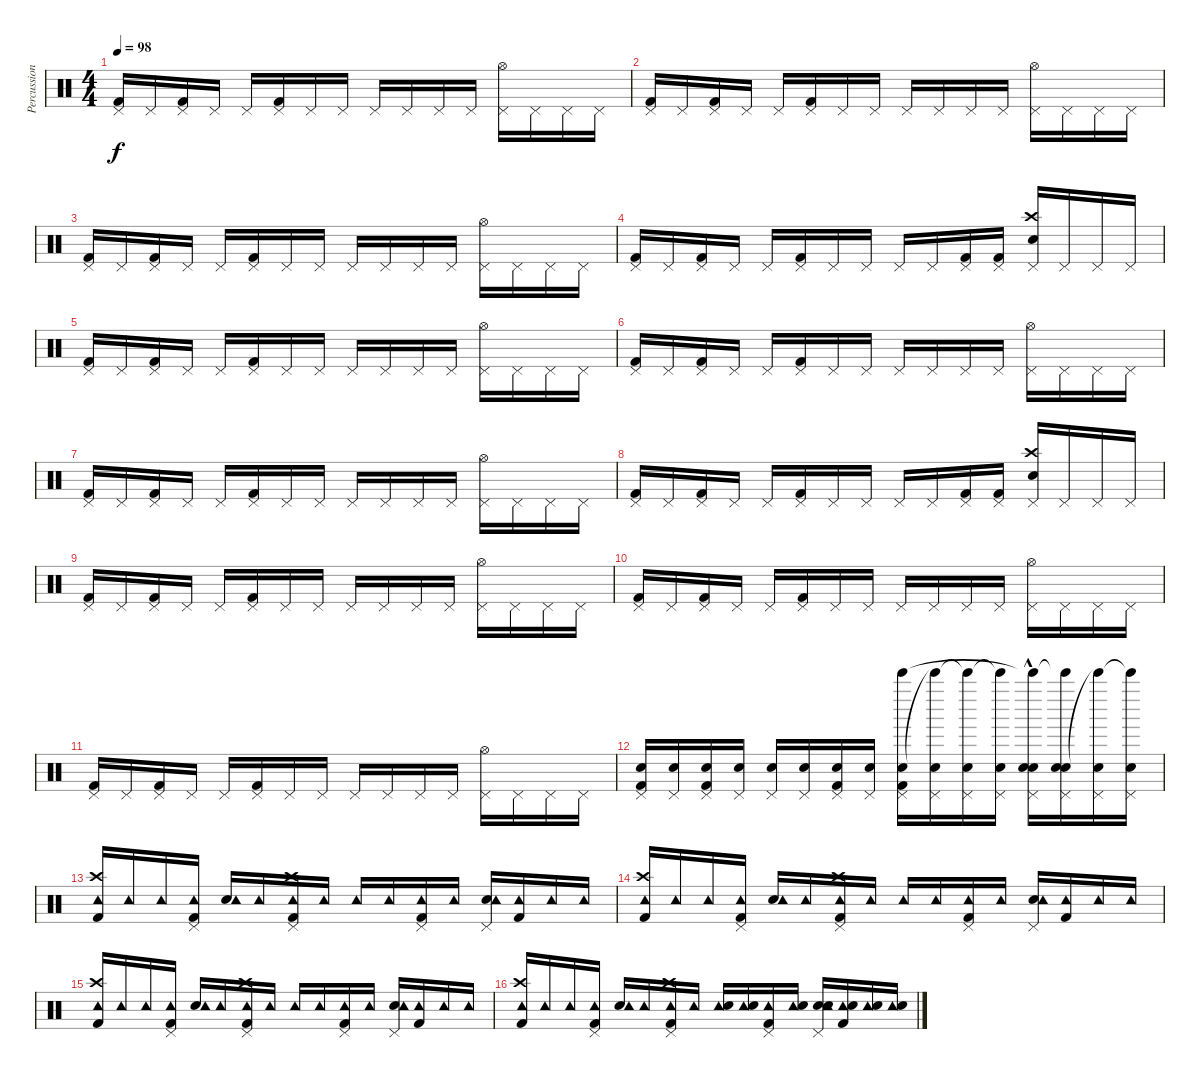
\track ("Percussion" "Percussion") {instrument percussion}
\staff {score}
\articulation defaults
\ts (4 4)
\tempo 98
\clef neutral
\ks c
("Pedal Hi-Hat (hit)" "Kick (hit) 2").16{dy f} "Pedal Hi-Hat (hit)".16 ("Pedal Hi-Hat (hit)" "Kick (hit) 2").16 "Pedal Hi-Hat (hit)".16 "Pedal Hi-Hat (hit)".16 ("Pedal Hi-Hat (hit)" "Kick (hit) 2").16 "Pedal Hi-Hat (hit)".16 "Pedal Hi-Hat (hit)".16 "Pedal Hi-Hat (hit)".16 "Pedal Hi-Hat (hit)".16 "Pedal Hi-Hat (hit)".16 "Pedal Hi-Hat (hit)".16 ("Pedal Hi-Hat (hit)" "Hi-Hat (open)").16 "Pedal Hi-Hat (hit)".16 "Pedal Hi-Hat (hit)".16 "Pedal Hi-Hat (hit)".16 |
("Pedal Hi-Hat (hit)" "Kick (hit) 2").16 "Pedal Hi-Hat (hit)".16 ("Pedal Hi-Hat (hit)" "Kick (hit) 2").16 "Pedal Hi-Hat (hit)".16 "Pedal Hi-Hat (hit)".16 ("Pedal Hi-Hat (hit)" "Kick (hit) 2").16 "Pedal Hi-Hat (hit)".16 "Pedal Hi-Hat (hit)".16 "Pedal Hi-Hat (hit)".16 "Pedal Hi-Hat (hit)".16 "Pedal Hi-Hat (hit)".16 "Pedal Hi-Hat (hit)".16 ("Pedal Hi-Hat (hit)" "Hi-Hat (open)").16 "Pedal Hi-Hat (hit)".16 "Pedal Hi-Hat (hit)".16 "Pedal Hi-Hat (hit)".16 |
("Pedal Hi-Hat (hit)" "Kick (hit) 2").16 "Pedal Hi-Hat (hit)".16 ("Pedal Hi-Hat (hit)" "Kick (hit) 2").16 "Pedal Hi-Hat (hit)".16 "Pedal Hi-Hat (hit)".16 ("Pedal Hi-Hat (hit)" "Kick (hit) 2").16 "Pedal Hi-Hat (hit)".16 "Pedal Hi-Hat (hit)".16 "Pedal Hi-Hat (hit)".16 "Pedal Hi-Hat (hit)".16 "Pedal Hi-Hat (hit)".16 "Pedal Hi-Hat (hit)".16 ("Pedal Hi-Hat (hit)" "Hi-Hat (open)").16 "Pedal Hi-Hat (hit)".16 "Pedal Hi-Hat (hit)".16 "Pedal Hi-Hat (hit)".16 |
("Pedal Hi-Hat (hit)" "Kick (hit) 2").16 "Pedal Hi-Hat (hit)".16 ("Pedal Hi-Hat (hit)" "Kick (hit) 2").16 "Pedal Hi-Hat (hit)".16 "Pedal Hi-Hat (hit)".16 ("Pedal Hi-Hat (hit)" "Kick (hit) 2").16 "Pedal Hi-Hat (hit)".16 "Pedal Hi-Hat (hit)".16 "Pedal Hi-Hat (hit)".16 "Pedal Hi-Hat (hit)".16 ("Pedal Hi-Hat (hit)" "Kick (hit) 2").16 ("Pedal Hi-Hat (hit)" "Kick (hit) 2").16 ("Crash high (hit)" "Pedal Hi-Hat (hit)" "Snare (hit) 2").16 "Pedal Hi-Hat (hit)".16 "Pedal Hi-Hat (hit)".16 "Pedal Hi-Hat (hit)".16 |
("Pedal Hi-Hat (hit)" "Kick (hit) 2").16 "Pedal Hi-Hat (hit)".16 ("Pedal Hi-Hat (hit)" "Kick (hit) 2").16 "Pedal Hi-Hat (hit)".16 "Pedal Hi-Hat (hit)".16 ("Pedal Hi-Hat (hit)" "Kick (hit) 2").16 "Pedal Hi-Hat (hit)".16 "Pedal Hi-Hat (hit)".16 "Pedal Hi-Hat (hit)".16 "Pedal Hi-Hat (hit)".16 "Pedal Hi-Hat (hit)".16 "Pedal Hi-Hat (hit)".16 ("Pedal Hi-Hat (hit)" "Hi-Hat (open)").16 "Pedal Hi-Hat (hit)".16 "Pedal Hi-Hat (hit)".16 "Pedal Hi-Hat (hit)".16 |
("Pedal Hi-Hat (hit)" "Kick (hit) 2").16 "Pedal Hi-Hat (hit)".16 ("Pedal Hi-Hat (hit)" "Kick (hit) 2").16 "Pedal Hi-Hat (hit)".16 "Pedal Hi-Hat (hit)".16 ("Pedal Hi-Hat (hit)" "Kick (hit) 2").16 "Pedal Hi-Hat (hit)".16 "Pedal Hi-Hat (hit)".16 "Pedal Hi-Hat (hit)".16 "Pedal Hi-Hat (hit)".16 "Pedal Hi-Hat (hit)".16 "Pedal Hi-Hat (hit)".16 ("Pedal Hi-Hat (hit)" "Hi-Hat (open)").16 "Pedal Hi-Hat (hit)".16 "Pedal Hi-Hat (hit)".16 "Pedal Hi-Hat (hit)".16 |
("Pedal Hi-Hat (hit)" "Kick (hit) 2").16 "Pedal Hi-Hat (hit)".16 ("Pedal Hi-Hat (hit)" "Kick (hit) 2").16 "Pedal Hi-Hat (hit)".16 "Pedal Hi-Hat (hit)".16 ("Pedal Hi-Hat (hit)" "Kick (hit) 2").16 "Pedal Hi-Hat (hit)".16 "Pedal Hi-Hat (hit)".16 "Pedal Hi-Hat (hit)".16 "Pedal Hi-Hat (hit)".16 "Pedal Hi-Hat (hit)".16 "Pedal Hi-Hat (hit)".16 ("Pedal Hi-Hat (hit)" "Hi-Hat (open)").16 "Pedal Hi-Hat (hit)".16 "Pedal Hi-Hat (hit)".16 "Pedal Hi-Hat (hit)".16 |
("Pedal Hi-Hat (hit)" "Kick (hit) 2").16 "Pedal Hi-Hat (hit)".16 ("Pedal Hi-Hat (hit)" "Kick (hit) 2").16 "Pedal Hi-Hat (hit)".16 "Pedal Hi-Hat (hit)".16 ("Pedal Hi-Hat (hit)" "Kick (hit) 2").16 "Pedal Hi-Hat (hit)".16 "Pedal Hi-Hat (hit)".16 "Pedal Hi-Hat (hit)".16 "Pedal Hi-Hat (hit)".16 ("Pedal Hi-Hat (hit)" "Kick (hit) 2").16 ("Pedal Hi-Hat (hit)" "Kick (hit) 2").16 ("Crash high (hit)" "Pedal Hi-Hat (hit)" "Snare (hit) 2").16 "Pedal Hi-Hat (hit)".16 "Pedal Hi-Hat (hit)".16 "Pedal Hi-Hat (hit)".16 |
("Pedal Hi-Hat (hit)" "Kick (hit) 2").16 "Pedal Hi-Hat (hit)".16 ("Pedal Hi-Hat (hit)" "Kick (hit) 2").16 "Pedal Hi-Hat (hit)".16 "Pedal Hi-Hat (hit)".16 ("Pedal Hi-Hat (hit)" "Kick (hit) 2").16 "Pedal Hi-Hat (hit)".16 "Pedal Hi-Hat (hit)".16 "Pedal Hi-Hat (hit)".16 "Pedal Hi-Hat (hit)".16 "Pedal Hi-Hat (hit)".16 "Pedal Hi-Hat (hit)".16 ("Pedal Hi-Hat (hit)" "Hi-Hat (open)").16 "Pedal Hi-Hat (hit)".16 "Pedal Hi-Hat (hit)".16 "Pedal Hi-Hat (hit)".16 |
("Pedal Hi-Hat (hit)" "Kick (hit) 2").16 "Pedal Hi-Hat (hit)".16 ("Pedal Hi-Hat (hit)" "Kick (hit) 2").16 "Pedal Hi-Hat (hit)".16 "Pedal Hi-Hat (hit)".16 ("Pedal Hi-Hat (hit)" "Kick (hit) 2").16 "Pedal Hi-Hat (hit)".16 "Pedal Hi-Hat (hit)".16 "Pedal Hi-Hat (hit)".16 "Pedal Hi-Hat (hit)".16 "Pedal Hi-Hat (hit)".16 "Pedal Hi-Hat (hit)".16 ("Pedal Hi-Hat (hit)" "Hi-Hat (open)").16 "Pedal Hi-Hat (hit)".16 "Pedal Hi-Hat (hit)".16 "Pedal Hi-Hat (hit)".16 |
("Pedal Hi-Hat (hit)" "Kick (hit) 2").16 "Pedal Hi-Hat (hit)".16 ("Pedal Hi-Hat (hit)" "Kick (hit) 2").16 "Pedal Hi-Hat (hit)".16 "Pedal Hi-Hat (hit)".16 ("Pedal Hi-Hat (hit)" "Kick (hit) 2").16 "Pedal Hi-Hat (hit)".16 "Pedal Hi-Hat (hit)".16 "Pedal Hi-Hat (hit)".16 "Pedal Hi-Hat (hit)".16 "Pedal Hi-Hat (hit)".16 "Pedal Hi-Hat (hit)".16 ("Pedal Hi-Hat (hit)" "Hi-Hat (open)").16 "Pedal Hi-Hat (hit)".16 "Pedal Hi-Hat (hit)".16 "Pedal Hi-Hat (hit)".16 |
("Kick (hit) 2" "Pedal Hi-Hat (hit)" "Snare (hit) 2").16 ("Pedal Hi-Hat (hit)" "Snare (hit) 2").16 ("Kick (hit) 2" "Pedal Hi-Hat (hit)" "Snare (hit) 2").16 ("Pedal Hi-Hat (hit)" "Snare (hit) 2").16 ("Pedal Hi-Hat (hit)" "Snare (hit) 2").16 ("Pedal Hi-Hat (hit)" "Snare (hit) 2").16 ("Kick (hit) 2" "Pedal Hi-Hat (hit)" "Snare (hit) 2").16 ("Pedal Hi-Hat (hit)" "Snare (hit) 2").16 ("Kick (hit) 2" "Pedal Hi-Hat (hit)" "Snare (hit) 2" "Bell Tree (hit)").16 ("Pedal Hi-Hat (hit)" "Snare (hit) 2" "Bell Tree (hit)"{t}).16 ("Pedal Hi-Hat (hit)" "Snare (hit) 2" "Bell Tree (hit)"{t}).16 ("Pedal Hi-Hat (hit)" "Snare (hit) 2" "Bell Tree (hit)"{t}).16 ("Snare (hit) 2" "Pedal Hi-Hat (hit)"{hac} "Snare (hit) 2" "Bell Tree (hit)"{t}).16 ("Snare (hit) 2" "Pedal Hi-Hat (hit)" "Snare (hit) 2" "Bell Tree (hit)"{t}).16 ("Pedal Hi-Hat (hit)" "Snare (hit) 2" "Bell Tree (hit)"{t}).16 ("Pedal Hi-Hat (hit)" "Snare (hit) 2" "Bell Tree (hit)"{t}).16 |
("Crash high (hit)" "Kick (hit) 2" "Tambourine (hit)").16 "Tambourine (hit)".16 "Tambourine (hit)".16 ("Pedal Hi-Hat (hit)" "Kick (hit) 2" "Tambourine (hit)").16 ("Snare (hit) 2" "Tambourine (hit)").16 "Tambourine (hit)".16 ("Crash high (hit)" "Kick (hit) 2" "Tambourine (hit)" "Pedal Hi-Hat (hit)").16 "Tambourine (hit)".16 "Tambourine (hit)".16 "Tambourine (hit)".16 ("Pedal Hi-Hat (hit)" "Kick (hit) 2" "Tambourine (hit)").16 "Tambourine (hit)".16 ("Pedal Hi-Hat (hit)" "Snare (hit) 2" "Tambourine (hit)").16 ("Kick (hit) 2" "Tambourine (hit)").16 "Tambourine (hit)".16 "Tambourine (hit)".16 |
("Crash high (hit)" "Kick (hit) 2" "Tambourine (hit)").16 "Tambourine (hit)".16 "Tambourine (hit)".16 ("Pedal Hi-Hat (hit)" "Kick (hit) 2" "Tambourine (hit)").16 ("Snare (hit) 2" "Tambourine (hit)").16 "Tambourine (hit)".16 ("Crash high (hit)" "Kick (hit) 2" "Tambourine (hit)" "Pedal Hi-Hat (hit)").16 "Tambourine (hit)".16 "Tambourine (hit)".16 "Tambourine (hit)".16 ("Pedal Hi-Hat (hit)" "Kick (hit) 2" "Tambourine (hit)").16 "Tambourine (hit)".16 ("Pedal Hi-Hat (hit)" "Snare (hit) 2" "Tambourine (hit)").16 ("Kick (hit) 2" "Tambourine (hit)").16 "Tambourine (hit)".16 "Tambourine (hit)".16 |
("Crash high (hit)" "Kick (hit) 2" "Tambourine (hit)").16 "Tambourine (hit)".16 "Tambourine (hit)".16 ("Pedal Hi-Hat (hit)" "Kick (hit) 2" "Tambourine (hit)").16 ("Snare (hit) 2" "Tambourine (hit)").16 "Tambourine (hit)".16 ("Crash high (hit)" "Kick (hit) 2" "Tambourine (hit)" "Pedal Hi-Hat (hit)").16 "Tambourine (hit)".16 "Tambourine (hit)".16 "Tambourine (hit)".16 ("Pedal Hi-Hat (hit)" "Kick (hit) 2" "Tambourine (hit)").16 "Tambourine (hit)".16 ("Pedal Hi-Hat (hit)" "Snare (hit) 2" "Tambourine (hit)").16 ("Kick (hit) 2" "Tambourine (hit)").16 "Tambourine (hit)".16 "Tambourine (hit)".16 |
("Crash high (hit)" "Kick (hit) 2" "Tambourine (hit)").16 "Tambourine (hit)".16 "Tambourine (hit)".16 ("Pedal Hi-Hat (hit)" "Kick (hit) 2" "Tambourine (hit)").16 ("Snare (hit) 2" "Tambourine (hit)").16 "Tambourine (hit)".16 ("Crash high (hit)" "Kick (hit) 2" "Tambourine (hit)" "Pedal Hi-Hat (hit)").16 "Tambourine (hit)".16 ("Tambourine (hit)" "Snare (hit) 2").16 ("Tambourine (hit)" "Snare (hit) 2").16 ("Pedal Hi-Hat (hit)" "Kick (hit) 2" "Tambourine (hit)").16 ("Tambourine (hit)" "Snare (hit) 2").16 ("Pedal Hi-Hat (hit)" "Snare (hit) 2" "Tambourine (hit)" "Snare (hit) 2").16 ("Kick (hit) 2" "Tambourine (hit)" "Snare (hit) 2").16 ("Tambourine (hit)" "Snare (hit) 2").16 ("Tambourine (hit)" "Snare (hit) 2").16
